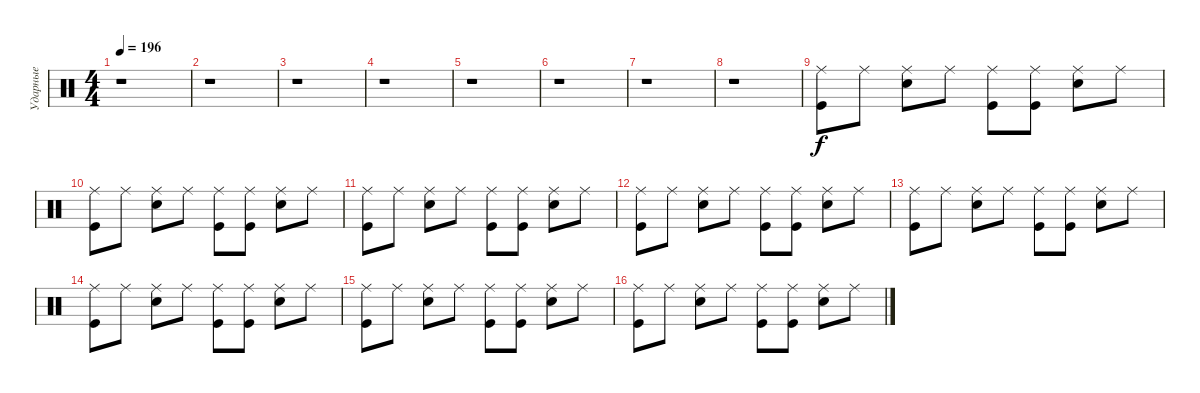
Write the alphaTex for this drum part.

\track ("Ударные" "Ударные") {instrument percussion}
\staff {score}
\articulation defaults
\ts (4 4)
\tempo 196
\clef neutral
\ks c
r.1{dy f} |
r.1 |
r.1 |
r.1 |
r.1 |
r.1 |
r.1 |
r.1 |
("Ride (middle)" "Kick (hit)").8 "Ride (middle)".8 ("Ride (middle)" "Electric Snare (hit)").8 "Ride (middle)".8 ("Ride (middle)" "Kick (hit)").8 ("Ride (middle)" "Kick (hit)").8 ("Ride (middle)" "Electric Snare (hit)").8 "Ride (middle)".8 |
("Ride (middle)" "Kick (hit)").8 "Ride (middle)".8 ("Ride (middle)" "Electric Snare (hit)").8 "Ride (middle)".8 ("Ride (middle)" "Kick (hit)").8 ("Ride (middle)" "Kick (hit)").8 ("Ride (middle)" "Electric Snare (hit)").8 "Ride (middle)".8 |
("Ride (middle)" "Kick (hit)").8 "Ride (middle)".8 ("Ride (middle)" "Electric Snare (hit)").8 "Ride (middle)".8 ("Ride (middle)" "Kick (hit)").8 ("Ride (middle)" "Kick (hit)").8 ("Ride (middle)" "Electric Snare (hit)").8 "Ride (middle)".8 |
("Ride (middle)" "Kick (hit)").8 "Ride (middle)".8 ("Ride (middle)" "Electric Snare (hit)").8 "Ride (middle)".8 ("Ride (middle)" "Kick (hit)").8 ("Ride (middle)" "Kick (hit)").8 ("Ride (middle)" "Electric Snare (hit)").8 "Ride (middle)".8 |
("Ride (middle)" "Kick (hit)").8 "Ride (middle)".8 ("Ride (middle)" "Electric Snare (hit)").8 "Ride (middle)".8 ("Ride (middle)" "Kick (hit)").8 ("Ride (middle)" "Kick (hit)").8 ("Ride (middle)" "Electric Snare (hit)").8 "Ride (middle)".8 |
("Ride (middle)" "Kick (hit)").8 "Ride (middle)".8 ("Ride (middle)" "Electric Snare (hit)").8 "Ride (middle)".8 ("Ride (middle)" "Kick (hit)").8 ("Ride (middle)" "Kick (hit)").8 ("Ride (middle)" "Electric Snare (hit)").8 "Ride (middle)".8 |
("Ride (middle)" "Kick (hit)").8 "Ride (middle)".8 ("Ride (middle)" "Electric Snare (hit)").8 "Ride (middle)".8 ("Ride (middle)" "Kick (hit)").8 ("Ride (middle)" "Kick (hit)").8 ("Ride (middle)" "Electric Snare (hit)").8 "Ride (middle)".8 |
("Ride (middle)" "Kick (hit)").8 "Ride (middle)".8 ("Ride (middle)" "Electric Snare (hit)").8 "Ride (middle)".8 ("Ride (middle)" "Kick (hit)").8 ("Ride (middle)" "Kick (hit)").8 ("Ride (middle)" "Electric Snare (hit)").8 "Ride (middle)".8
